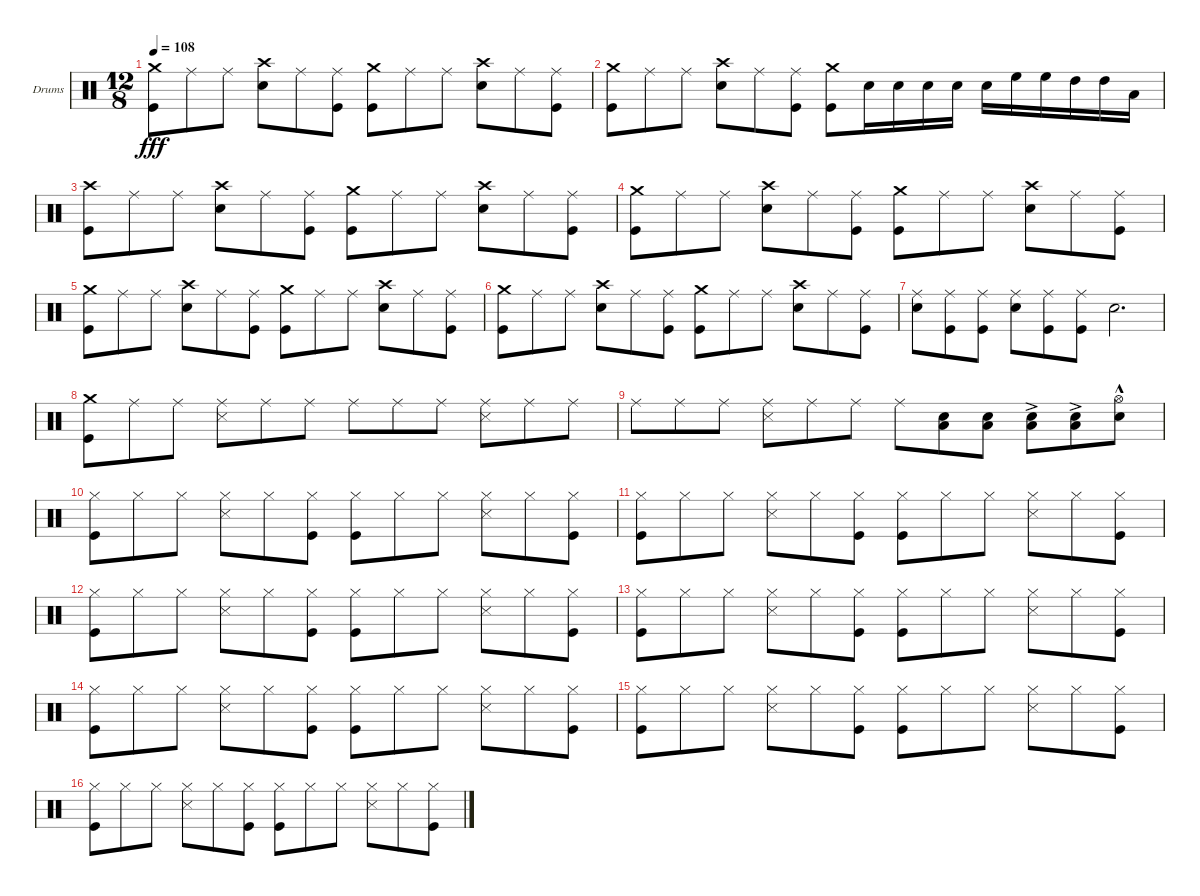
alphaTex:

\defaultSystemsLayout 4
\bracketExtendMode groupsimilarinstruments
\firstSystemTrackNameOrientation horizontal
\otherSystemsTrackNameOrientation horizontal
\track ("Drumkit" "Drums") {instrument percussion}
\staff {score}
\articulation defaults
\ts (12 8)
\tempo 108
\clef neutral
\scale
0.333333
\ks c
("Crash medium (hit)" "Kick (hit)").8{dy fff} "Ride (middle)".8 "Ride (middle)".8 ("Crash high (hit)" "Snare (hit) 2").8 "Ride (middle)".8 ("Ride (middle)" "Kick (hit)").8 ("Crash medium (hit)" "Kick (hit)").8 "Ride (middle)".8 "Ride (middle)".8 ("Crash high (hit)" "Snare (hit) 2").8 "Ride (middle)".8 ("Ride (middle)" "Kick (hit)").8 |
\scale
0.333333 ("Crash medium (hit)" "Kick (hit)").8 "Ride (middle)".8 "Ride (middle)".8 ("Crash high (hit)" "Snare (hit) 2").8 "Ride (middle)".8 ("Ride (middle)" "Kick (hit)").8 ("Crash medium (hit)" "Kick (hit)").8 "Snare (hit) 2".16 "Snare (hit) 2".16 "Snare (hit) 2".16 "Snare (hit) 2".16 "Snare (hit) 2".16 "High Floor Tom (hit)".16 "High Floor Tom (hit)".16 "High Tom (hit)".16 "High Tom (hit)".16 "Low Tom (hit)".16 |
\scale
0.333333 ("Crash high (hit)" "Kick (hit)").8 "Ride (middle)".8 "Ride (middle)".8 ("Crash high (hit)" "Snare (hit) 2").8 "Ride (middle)".8 ("Ride (middle)" "Kick (hit)").8 ("Crash medium (hit)" "Kick (hit)").8 "Ride (middle)".8 "Ride (middle)".8 ("Crash high (hit)" "Snare (hit) 2").8 "Ride (middle)".8 ("Ride (middle)" "Kick (hit)").8 |
\scale
0.333333 ("Crash medium (hit)" "Kick (hit)").8 "Ride (middle)".8 "Ride (middle)".8 ("Crash high (hit)" "Snare (hit) 2").8 "Ride (middle)".8 ("Ride (middle)" "Kick (hit)").8 ("Crash medium (hit)" "Kick (hit)").8 "Ride (middle)".8 "Ride (middle)".8 ("Crash high (hit)" "Snare (hit) 2").8 "Ride (middle)".8 ("Ride (middle)" "Kick (hit)").8 |
\scale
0.333333 ("Crash medium (hit)" "Kick (hit)").8 "Ride (middle)".8 "Ride (middle)".8 ("Crash high (hit)" "Snare (hit) 2").8 "Ride (middle)".8 ("Ride (middle)" "Kick (hit)").8 ("Crash medium (hit)" "Kick (hit)").8 "Ride (middle)".8 "Ride (middle)".8 ("Crash high (hit)" "Snare (hit) 2").8 "Ride (middle)".8 ("Ride (middle)" "Kick (hit)").8 |
\scale
0.333333 ("Crash medium (hit)" "Kick (hit)").8 "Ride (middle)".8 "Ride (middle)".8 ("Crash high (hit)" "Snare (hit) 2").8 "Ride (middle)".8 ("Ride (middle)" "Kick (hit)").8 ("Crash medium (hit)" "Kick (hit)").8 "Ride (middle)".8 "Ride (middle)".8 ("Crash high (hit)" "Snare (hit) 2").8 "Ride (middle)".8 ("Ride (middle)" "Kick (hit)").8 |
\scale
0.333333 ("Ride (middle)" "Snare (hit) 2").8 ("Ride (middle)" "Kick (hit)").8 ("Ride (middle)" "Kick (hit)").8 ("Ride (middle)" "Snare (hit) 2").8 ("Ride (middle)" "Kick (hit)").8 ("Ride (middle)" "Kick (hit)").8 "Snare (hit) 2".2{d} |
\scale
0.333333 ("Crash medium (hit)" "Kick (hit)").8 "Ride (middle)".8 "Ride (middle)".8 ("Ride (middle)" "Snare (side stick) 3").8 "Ride (middle)".8 "Ride (middle)".8 "Ride (middle)".8 "Ride (middle)".8 "Ride (middle)".8 ("Ride (middle)" "Snare (side stick) 3").8 "Ride (middle)".8 "Ride (middle)".8 |
\scale
0.333333 "Ride (middle)".8 "Ride (middle)".8 "Ride (middle)".8 ("Ride (middle)" "Snare (side stick) 3").8 "Ride (middle)".8 "Ride (middle)".8 "Ride (middle)".8 ("Snare (hit) 2" "Low Tom (hit)").8 ("Snare (hit) 2" "Low Tom (hit)").8 ("Snare (hit) 2"{ac} "Low Tom (hit)"{ac}).8 ("Snare (hit) 2"{ac} "Low Tom (hit)"{ac}).8 ("Hi-Hat (open)"{hac} "Snare (hit) 2"{hac}).8 |
\scale
0.333333 ("Hi-Hat (closed)" "Kick (hit)").8 "Hi-Hat (closed)".8 "Hi-Hat (closed)".8 ("Hi-Hat (closed)" "Snare (side stick) 3").8 "Hi-Hat (closed)".8 ("Hi-Hat (closed)" "Kick (hit)").8 ("Hi-Hat (closed)" "Kick (hit)").8 "Hi-Hat (closed)".8 "Hi-Hat (closed)".8 ("Hi-Hat (closed)" "Snare (side stick) 3").8 "Hi-Hat (closed)".8 ("Hi-Hat (closed)" "Kick (hit)").8 |
\scale
0.333333 ("Hi-Hat (closed)" "Kick (hit)").8 "Hi-Hat (closed)".8 "Hi-Hat (closed)".8 ("Hi-Hat (closed)" "Snare (side stick) 3").8 "Hi-Hat (closed)".8 ("Hi-Hat (closed)" "Kick (hit)").8 ("Hi-Hat (closed)" "Kick (hit)").8 "Hi-Hat (closed)".8 "Hi-Hat (closed)".8 ("Hi-Hat (closed)" "Snare (side stick) 3").8 "Hi-Hat (closed)".8 ("Hi-Hat (closed)" "Kick (hit)").8 |
\scale
0.333333 ("Hi-Hat (closed)" "Kick (hit)").8 "Hi-Hat (closed)".8 "Hi-Hat (closed)".8 ("Hi-Hat (closed)" "Snare (side stick) 3").8 "Hi-Hat (closed)".8 ("Hi-Hat (closed)" "Kick (hit)").8 ("Hi-Hat (closed)" "Kick (hit)").8 "Hi-Hat (closed)".8 "Hi-Hat (closed)".8 ("Hi-Hat (closed)" "Snare (side stick) 3").8 "Hi-Hat (closed)".8 ("Hi-Hat (closed)" "Kick (hit)").8 |
\scale
0.333333 ("Hi-Hat (closed)" "Kick (hit)").8 "Hi-Hat (closed)".8 "Hi-Hat (closed)".8 ("Hi-Hat (closed)" "Snare (side stick) 3").8 "Hi-Hat (closed)".8 ("Hi-Hat (closed)" "Kick (hit)").8 ("Hi-Hat (closed)" "Kick (hit)").8 "Hi-Hat (closed)".8 "Hi-Hat (closed)".8 ("Hi-Hat (closed)" "Snare (side stick) 3").8 "Hi-Hat (closed)".8 ("Hi-Hat (closed)" "Kick (hit)").8 |
\scale
0.333333 ("Hi-Hat (closed)" "Kick (hit)").8 "Hi-Hat (closed)".8 "Hi-Hat (closed)".8 ("Hi-Hat (closed)" "Snare (side stick) 3").8 "Hi-Hat (closed)".8 ("Hi-Hat (closed)" "Kick (hit)").8 ("Hi-Hat (closed)" "Kick (hit)").8 "Hi-Hat (closed)".8 "Hi-Hat (closed)".8 ("Hi-Hat (closed)" "Snare (side stick) 3").8 "Hi-Hat (closed)".8 ("Hi-Hat (closed)" "Kick (hit)").8 |
\scale
0.333333 ("Hi-Hat (closed)" "Kick (hit)").8 "Hi-Hat (closed)".8 "Hi-Hat (closed)".8 ("Hi-Hat (closed)" "Snare (side stick) 3").8 "Hi-Hat (closed)".8 ("Hi-Hat (closed)" "Kick (hit)").8 ("Hi-Hat (closed)" "Kick (hit)").8 "Hi-Hat (closed)".8 "Hi-Hat (closed)".8 ("Hi-Hat (closed)" "Snare (side stick) 3").8 "Hi-Hat (closed)".8 ("Hi-Hat (closed)" "Kick (hit)").8 |
\scale
0.333333 ("Hi-Hat (closed)" "Kick (hit)").8 "Hi-Hat (closed)".8 "Hi-Hat (closed)".8 ("Hi-Hat (closed)" "Snare (side stick) 3").8 "Hi-Hat (closed)".8 ("Hi-Hat (closed)" "Kick (hit)").8 ("Hi-Hat (closed)" "Kick (hit)").8 "Hi-Hat (closed)".8 "Hi-Hat (closed)".8 ("Hi-Hat (closed)" "Snare (side stick) 3").8 "Hi-Hat (closed)".8 ("Hi-Hat (closed)" "Kick (hit)").8
